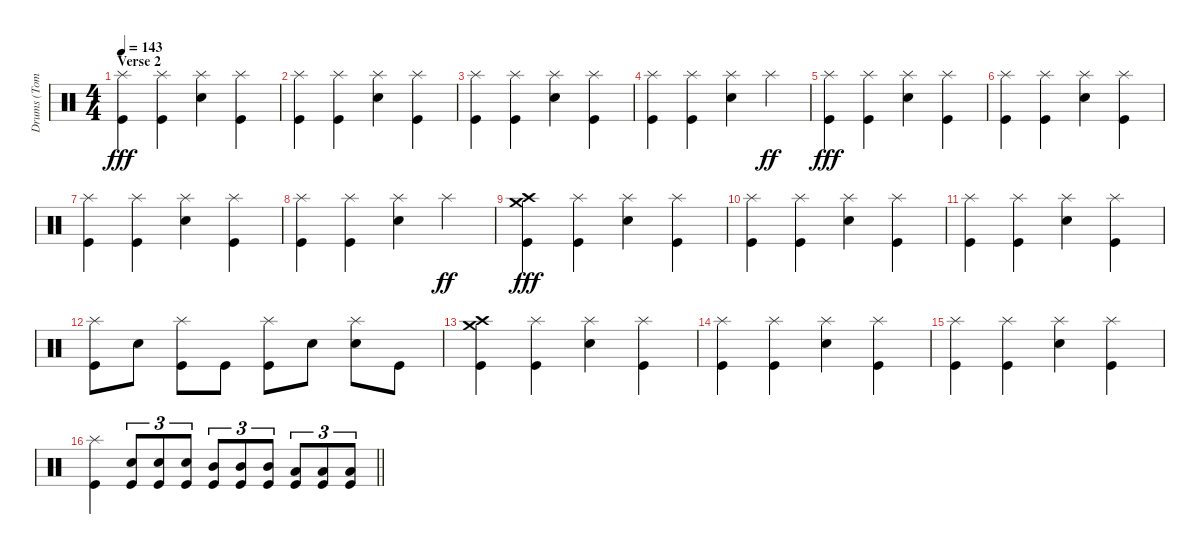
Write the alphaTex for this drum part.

\track ("Drums (Tommy Clufetos)" "Drums (Tom") {instrument percussion}
\staff {score}
\articulation defaults
\ts (4 4)
\section ("" "Verse 2")
\tempo 143
\clef neutral
\ks c
("Splash (hit)" "Kick (hit)").4{dy fff} ("Splash (hit)" "Kick (hit)").4 ("Splash (hit)" "Electric Snare (hit)").4 ("Splash (hit)" "Kick (hit)").4 |
("Splash (hit)" "Kick (hit)").4 ("Splash (hit)" "Kick (hit)").4 ("Splash (hit)" "Electric Snare (hit)").4 ("Splash (hit)" "Kick (hit)").4 |
("Splash (hit)" "Kick (hit)").4 ("Splash (hit)" "Kick (hit)").4 ("Splash (hit)" "Electric Snare (hit)").4 ("Splash (hit)" "Kick (hit)").4 |
("Splash (hit)" "Kick (hit)").4 ("Splash (hit)" "Kick (hit)").4 ("Splash (hit)" "Electric Snare (hit)").4 "Splash (hit)".4{dy ff} |
("Splash (hit)" "Kick (hit)").4{dy fff} ("Splash (hit)" "Kick (hit)").4 ("Splash (hit)" "Electric Snare (hit)").4 ("Splash (hit)" "Kick (hit)").4 |
("Splash (hit)" "Kick (hit)").4 ("Splash (hit)" "Kick (hit)").4 ("Splash (hit)" "Electric Snare (hit)").4 ("Splash (hit)" "Kick (hit)").4 |
("Splash (hit)" "Kick (hit)").4 ("Splash (hit)" "Kick (hit)").4 ("Splash (hit)" "Electric Snare (hit)").4 ("Splash (hit)" "Kick (hit)").4 |
("Splash (hit)" "Kick (hit)").4 ("Splash (hit)" "Kick (hit)").4 ("Splash (hit)" "Electric Snare (hit)").4 "Splash (hit)".4{dy ff} |
("Crash high (hit)" "Crash medium (hit)" "Kick (hit)").4{dy fff} ("Splash (hit)" "Kick (hit)").4 ("Splash (hit)" "Electric Snare (hit)").4 ("Splash (hit)" "Kick (hit)").4 |
("Splash (hit)" "Kick (hit)").4 ("Splash (hit)" "Kick (hit)").4 ("Splash (hit)" "Electric Snare (hit)").4 ("Splash (hit)" "Kick (hit)").4 |
("Splash (hit)" "Kick (hit)").4 ("Splash (hit)" "Kick (hit)").4 ("Splash (hit)" "Electric Snare (hit)").4 ("Splash (hit)" "Kick (hit)").4 |
("Splash (hit)" "Kick (hit)").8 "Electric Snare (hit)".8 ("Splash (hit)" "Kick (hit)").8 "Kick (hit)".8 ("Splash (hit)" "Kick (hit)").8 "Electric Snare (hit)".8 ("Splash (hit)" "Electric Snare (hit)").8 "Kick (hit)".8 |
("Crash high (hit)" "Crash medium (hit)" "Kick (hit)").4 ("Splash (hit)" "Kick (hit)").4 ("Splash (hit)" "Electric Snare (hit)").4 ("Splash (hit)" "Kick (hit)").4 |
("Splash (hit)" "Kick (hit)").4 ("Splash (hit)" "Kick (hit)").4 ("Splash (hit)" "Electric Snare (hit)").4 ("Splash (hit)" "Kick (hit)").4 |
("Splash (hit)" "Kick (hit)").4 ("Splash (hit)" "Kick (hit)").4 ("Splash (hit)" "Electric Snare (hit)").4 ("Splash (hit)" "Kick (hit)").4 |
\barLineRight lightlight
("Splash (hit)" "Kick (hit)").4 ("Electric Snare (hit)" "Kick (hit)").8{tu (3 2)} ("Electric Snare (hit)" "Kick (hit)").8{tu (3 2)} ("Electric Snare (hit)" "Kick (hit)").8{tu (3 2)} ("Mid Tom (hit)" "Kick (hit)").8{tu (3 2)} ("Mid Tom (hit)" "Kick (hit)").8{tu (3 2)} ("Mid Tom (hit)" "Kick (hit)").8{tu (3 2)} ("Low Tom (hit)" "Kick (hit)").8{tu (3 2)} ("Low Tom (hit)" "Kick (hit)").8{tu (3 2)} ("Low Tom (hit)" "Kick (hit)").8{tu (3 2)}
